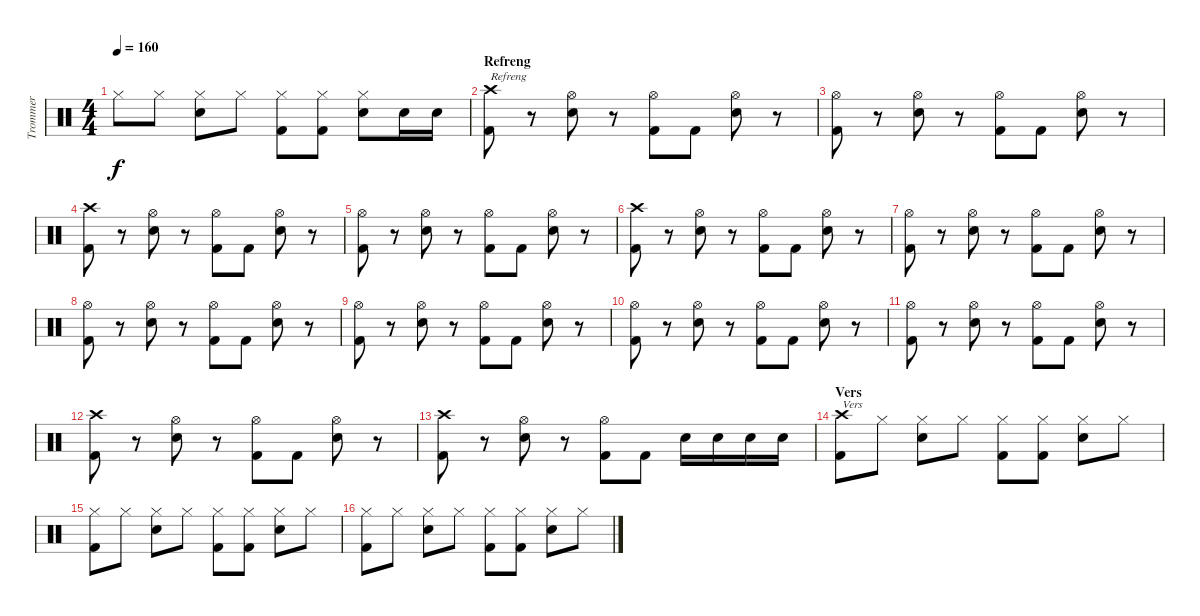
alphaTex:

\track ("Trommer" "Trommer") {instrument percussion}
\staff {score}
\articulation defaults
\ts (4 4)
\tempo 160
\clef neutral
\ks c "Hi-Hat (closed)".8{dy f} "Hi-Hat (closed)".8
("Hi-Hat (closed)" "Electric Snare (hit)").8 "Hi-Hat (closed)".8 ("Hi-Hat (closed)" "Kick (hit) 2").8 ("Hi-Hat (closed)" "Kick (hit) 2").8 ("Hi-Hat (closed)" "Electric Snare (hit)").8 "Electric Snare (hit)".16 "Electric Snare (hit)".16 |
\section ("" "Refreng")
("Crash high (hit)" "Kick (hit) 2").8{txt "Refreng"} r.8 ("Hi-Hat (open)" "Electric Snare (hit)").8 r.8 ("Hi-Hat (open)" "Kick (hit) 2").8 "Kick (hit) 2".8 ("Hi-Hat (open)" "Electric Snare (hit)").8 r.8 |
("Hi-Hat (open)" "Kick (hit) 2").8 r.8 ("Hi-Hat (open)" "Electric Snare (hit)").8 r.8 ("Hi-Hat (open)" "Kick (hit) 2").8 "Kick (hit) 2".8 ("Hi-Hat (open)" "Electric Snare (hit)").8 r.8 |
("Crash high (hit)" "Kick (hit) 2").8 r.8 ("Hi-Hat (open)" "Electric Snare (hit)").8 r.8 ("Hi-Hat (open)" "Kick (hit) 2").8 "Kick (hit) 2".8 ("Hi-Hat (open)" "Electric Snare (hit)").8 r.8 |
("Hi-Hat (open)" "Kick (hit) 2").8 r.8 ("Hi-Hat (open)" "Electric Snare (hit)").8 r.8 ("Hi-Hat (open)" "Kick (hit) 2").8 "Kick (hit) 2".8 ("Hi-Hat (open)" "Electric Snare (hit)").8 r.8 |
("Crash high (hit)" "Kick (hit) 2").8 r.8 ("Hi-Hat (open)" "Electric Snare (hit)").8 r.8 ("Hi-Hat (open)" "Kick (hit) 2").8 "Kick (hit) 2".8 ("Hi-Hat (open)" "Electric Snare (hit)").8 r.8 |
("Hi-Hat (open)" "Kick (hit) 2").8 r.8 ("Hi-Hat (open)" "Electric Snare (hit)").8 r.8 ("Hi-Hat (open)" "Kick (hit) 2").8 "Kick (hit) 2".8 ("Hi-Hat (open)" "Electric Snare (hit)").8 r.8 |
("Hi-Hat (open)" "Kick (hit) 2").8 r.8 ("Hi-Hat (open)" "Electric Snare (hit)").8 r.8 ("Hi-Hat (open)" "Kick (hit) 2").8 "Kick (hit) 2".8 ("Hi-Hat (open)" "Electric Snare (hit)").8 r.8 |
("Hi-Hat (open)" "Kick (hit) 2").8 r.8 ("Hi-Hat (open)" "Electric Snare (hit)").8 r.8 ("Hi-Hat (open)" "Kick (hit) 2").8 "Kick (hit) 2".8 ("Hi-Hat (open)" "Electric Snare (hit)").8 r.8 |
("Hi-Hat (open)" "Kick (hit) 2").8 r.8 ("Hi-Hat (open)" "Electric Snare (hit)").8 r.8 ("Hi-Hat (open)" "Kick (hit) 2").8 "Kick (hit) 2".8 ("Hi-Hat (open)" "Electric Snare (hit)").8 r.8 |
("Hi-Hat (open)" "Kick (hit) 2").8 r.8 ("Hi-Hat (open)" "Electric Snare (hit)").8 r.8 ("Hi-Hat (open)" "Kick (hit) 2").8 "Kick (hit) 2".8 ("Hi-Hat (open)" "Electric Snare (hit)").8 r.8 |
("Crash high (hit)" "Kick (hit) 2").8 r.8 ("Hi-Hat (open)" "Electric Snare (hit)").8 r.8 ("Hi-Hat (open)" "Kick (hit) 2").8 "Kick (hit) 2".8 ("Hi-Hat (open)" "Electric Snare (hit)").8 r.8 |
("Crash high (hit)" "Kick (hit) 2").8 r.8 ("Hi-Hat (open)" "Electric Snare (hit)").8 r.8 ("Hi-Hat (open)" "Kick (hit) 2").8 "Kick (hit) 2".8 "Electric Snare (hit)".16 "Electric Snare (hit)".16 "Electric Snare (hit)".16 "Electric Snare (hit)".16 |
\section ("" "Vers")
("Crash high (hit)" "Kick (hit) 2").8{txt "Vers"} "Hi-Hat (closed)".8 ("Hi-Hat (closed)" "Electric Snare (hit)").8 "Hi-Hat (closed)".8 ("Hi-Hat (closed)" "Kick (hit) 2").8 ("Hi-Hat (closed)" "Kick (hit) 2").8 ("Hi-Hat (closed)" "Electric Snare (hit)").8 "Hi-Hat (closed)".8 |
("Hi-Hat (closed)" "Kick (hit) 2").8 "Hi-Hat (closed)".8 ("Hi-Hat (closed)" "Electric Snare (hit)").8 "Hi-Hat (closed)".8 ("Hi-Hat (closed)" "Kick (hit) 2").8 ("Hi-Hat (closed)" "Kick (hit) 2").8 ("Hi-Hat (closed)" "Electric Snare (hit)").8 "Hi-Hat (closed)".8 |
("Hi-Hat (closed)" "Kick (hit) 2").8 "Hi-Hat (closed)".8 ("Hi-Hat (closed)" "Electric Snare (hit)").8 "Hi-Hat (closed)".8 ("Hi-Hat (closed)" "Kick (hit) 2").8 ("Hi-Hat (closed)" "Kick (hit) 2").8 ("Hi-Hat (closed)" "Electric Snare (hit)").8 "Hi-Hat (closed)".8
